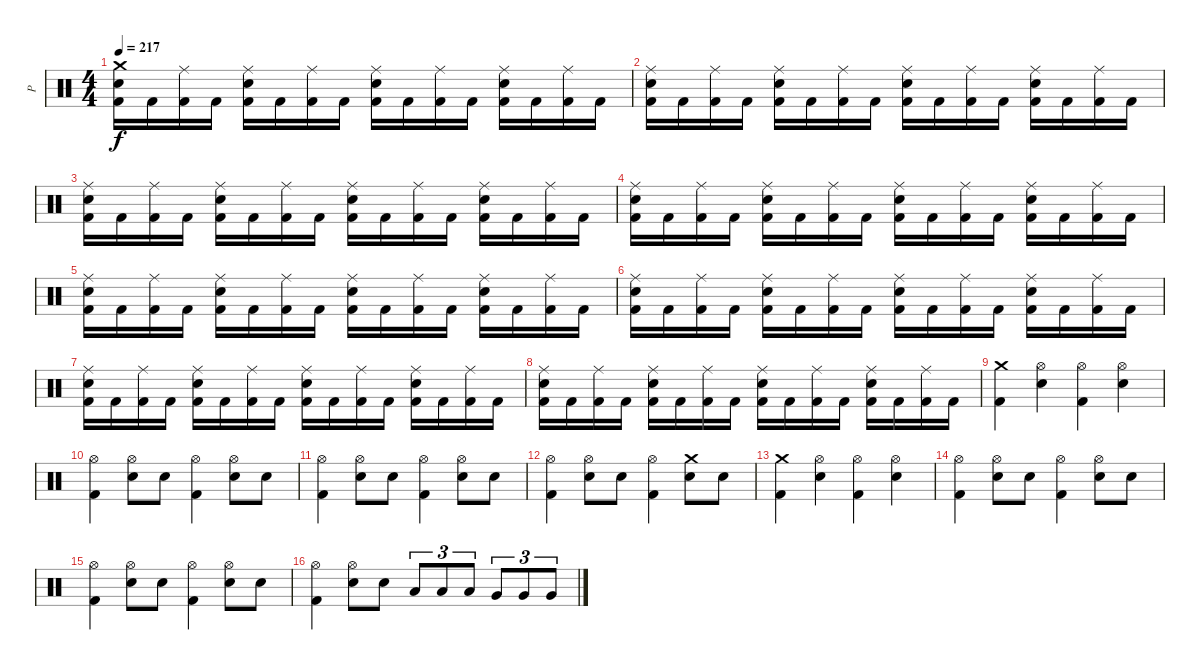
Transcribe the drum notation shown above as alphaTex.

\track ("P" "P") {instrument percussion}
\staff {score}
\articulation defaults
\ts (4 4)
\tempo 217
\clef neutral
\ks c
("Crash medium (hit)" "Electric Snare (hit)" "Kick (hit) 2").16{dy f} "Kick (hit) 2".16 ("Ride (middle)" "Kick (hit) 2").16 "Kick (hit) 2".16 ("Ride (middle)" "Electric Snare (hit)" "Kick (hit) 2").16 "Kick (hit) 2".16 ("Ride (middle)" "Kick (hit) 2").16 "Kick (hit) 2".16 ("Ride (middle)" "Electric Snare (hit)" "Kick (hit) 2").16 "Kick (hit) 2".16 ("Ride (middle)" "Kick (hit) 2").16 "Kick (hit) 2".16 ("Ride (middle)" "Electric Snare (hit)" "Kick (hit) 2").16 "Kick (hit) 2".16 ("Ride (middle)" "Kick (hit) 2").16 "Kick (hit) 2".16 |
("Ride (middle)" "Electric Snare (hit)" "Kick (hit) 2").16 "Kick (hit) 2".16 ("Ride (middle)" "Kick (hit) 2").16 "Kick (hit) 2".16 ("Ride (middle)" "Electric Snare (hit)" "Kick (hit) 2").16 "Kick (hit) 2".16 ("Ride (middle)" "Kick (hit) 2").16 "Kick (hit) 2".16 ("Ride (middle)" "Electric Snare (hit)" "Kick (hit) 2").16 "Kick (hit) 2".16 ("Ride (middle)" "Kick (hit) 2").16 "Kick (hit) 2".16 ("Ride (middle)" "Electric Snare (hit)" "Kick (hit) 2").16 "Kick (hit) 2".16 ("Ride (middle)" "Kick (hit) 2").16 "Kick (hit) 2".16 |
("Ride (middle)" "Electric Snare (hit)" "Kick (hit) 2").16 "Kick (hit) 2".16 ("Ride (middle)" "Kick (hit) 2").16 "Kick (hit) 2".16 ("Ride (middle)" "Electric Snare (hit)" "Kick (hit) 2").16 "Kick (hit) 2".16 ("Ride (middle)" "Kick (hit) 2").16 "Kick (hit) 2".16 ("Ride (middle)" "Electric Snare (hit)" "Kick (hit) 2").16 "Kick (hit) 2".16 ("Ride (middle)" "Kick (hit) 2").16 "Kick (hit) 2".16 ("Ride (middle)" "Electric Snare (hit)" "Kick (hit) 2").16 "Kick (hit) 2".16 ("Ride (middle)" "Kick (hit) 2").16 "Kick (hit) 2".16 |
("Ride (middle)" "Electric Snare (hit)" "Kick (hit) 2").16 "Kick (hit) 2".16 ("Ride (middle)" "Kick (hit) 2").16 "Kick (hit) 2".16 ("Ride (middle)" "Electric Snare (hit)" "Kick (hit) 2").16 "Kick (hit) 2".16 ("Ride (middle)" "Kick (hit) 2").16 "Kick (hit) 2".16 ("Ride (middle)" "Electric Snare (hit)" "Kick (hit) 2").16 "Kick (hit) 2".16 ("Ride (middle)" "Kick (hit) 2").16 "Kick (hit) 2".16 ("Ride (middle)" "Electric Snare (hit)" "Kick (hit) 2").16 "Kick (hit) 2".16 ("Ride (middle)" "Kick (hit) 2").16 "Kick (hit) 2".16 |
("Ride (middle)" "Electric Snare (hit)" "Kick (hit) 2").16 "Kick (hit) 2".16 ("Ride (middle)" "Kick (hit) 2").16 "Kick (hit) 2".16 ("Ride (middle)" "Electric Snare (hit)" "Kick (hit) 2").16 "Kick (hit) 2".16 ("Ride (middle)" "Kick (hit) 2").16 "Kick (hit) 2".16 ("Ride (middle)" "Electric Snare (hit)" "Kick (hit) 2").16 "Kick (hit) 2".16 ("Ride (middle)" "Kick (hit) 2").16 "Kick (hit) 2".16 ("Ride (middle)" "Electric Snare (hit)" "Kick (hit) 2").16 "Kick (hit) 2".16 ("Ride (middle)" "Kick (hit) 2").16 "Kick (hit) 2".16 |
("Ride (middle)" "Electric Snare (hit)" "Kick (hit) 2").16 "Kick (hit) 2".16 ("Ride (middle)" "Kick (hit) 2").16 "Kick (hit) 2".16 ("Ride (middle)" "Electric Snare (hit)" "Kick (hit) 2").16 "Kick (hit) 2".16 ("Ride (middle)" "Kick (hit) 2").16 "Kick (hit) 2".16 ("Ride (middle)" "Electric Snare (hit)" "Kick (hit) 2").16 "Kick (hit) 2".16 ("Ride (middle)" "Kick (hit) 2").16 "Kick (hit) 2".16 ("Ride (middle)" "Electric Snare (hit)" "Kick (hit) 2").16 "Kick (hit) 2".16 ("Ride (middle)" "Kick (hit) 2").16 "Kick (hit) 2".16 |
("Ride (middle)" "Electric Snare (hit)" "Kick (hit) 2").16 "Kick (hit) 2".16 ("Ride (middle)" "Kick (hit) 2").16 "Kick (hit) 2".16 ("Ride (middle)" "Electric Snare (hit)" "Kick (hit) 2").16 "Kick (hit) 2".16 ("Ride (middle)" "Kick (hit) 2").16 "Kick (hit) 2".16 ("Ride (middle)" "Electric Snare (hit)" "Kick (hit) 2").16 "Kick (hit) 2".16 ("Ride (middle)" "Kick (hit) 2").16 "Kick (hit) 2".16 ("Ride (middle)" "Electric Snare (hit)" "Kick (hit) 2").16 "Kick (hit) 2".16 ("Ride (middle)" "Kick (hit) 2").16 "Kick (hit) 2".16 |
("Ride (middle)" "Electric Snare (hit)" "Kick (hit) 2").16 "Kick (hit) 2".16 ("Ride (middle)" "Kick (hit) 2").16 "Kick (hit) 2".16 ("Ride (middle)" "Electric Snare (hit)" "Kick (hit) 2").16 "Kick (hit) 2".16 ("Ride (middle)" "Kick (hit) 2").16 "Kick (hit) 2".16 ("Ride (middle)" "Electric Snare (hit)" "Kick (hit) 2").16 "Kick (hit) 2".16 ("Ride (middle)" "Kick (hit) 2").16 "Kick (hit) 2".16 ("Ride (middle)" "Electric Snare (hit)" "Kick (hit) 2").16 "Kick (hit) 2".16 ("Ride (middle)" "Kick (hit) 2").16 "Kick (hit) 2".16 |
("Crash medium (hit)" "Kick (hit) 2").4 ("Hi-Hat (open)" "Electric Snare (hit)").4 ("Hi-Hat (open)" "Kick (hit) 2").4 ("Hi-Hat (open)" "Electric Snare (hit)").4 |
("Hi-Hat (open)" "Kick (hit) 2").4 ("Hi-Hat (open)" "Electric Snare (hit)").8 "Electric Snare (hit)".8 ("Hi-Hat (open)" "Kick (hit) 2").4 ("Hi-Hat (open)" "Electric Snare (hit)").8 "Electric Snare (hit)".8 |
("Hi-Hat (open)" "Kick (hit) 2").4 ("Hi-Hat (open)" "Electric Snare (hit)").8 "Electric Snare (hit)".8 ("Hi-Hat (open)" "Kick (hit) 2").4 ("Hi-Hat (open)" "Electric Snare (hit)").8 "Electric Snare (hit)".8 |
("Hi-Hat (open)" "Kick (hit) 2").4 ("Hi-Hat (open)" "Electric Snare (hit)").8 "Electric Snare (hit)".8 ("Hi-Hat (open)" "Kick (hit) 2").4 ("Crash medium (hit)" "Electric Snare (hit)").8 "Electric Snare (hit)".8 |
("Crash medium (hit)" "Kick (hit) 2").4 ("Hi-Hat (open)" "Electric Snare (hit)").4 ("Hi-Hat (open)" "Kick (hit) 2").4 ("Hi-Hat (open)" "Electric Snare (hit)").4 |
("Hi-Hat (open)" "Kick (hit) 2").4 ("Hi-Hat (open)" "Electric Snare (hit)").8 "Electric Snare (hit)".8 ("Hi-Hat (open)" "Kick (hit) 2").4 ("Hi-Hat (open)" "Electric Snare (hit)").8 "Electric Snare (hit)".8 |
("Hi-Hat (open)" "Kick (hit) 2").4 ("Hi-Hat (open)" "Electric Snare (hit)").8 "Electric Snare (hit)".8 ("Hi-Hat (open)" "Kick (hit) 2").4 ("Hi-Hat (open)" "Electric Snare (hit)").8 "Electric Snare (hit)".8 |
("Hi-Hat (open)" "Kick (hit) 2").4 ("Hi-Hat (open)" "Electric Snare (hit)").8 "Electric Snare (hit)".8 "Low Tom (hit)".8{tu (3 2)} "Low Tom (hit)".8{tu (3 2)} "Low Tom (hit)".8{tu (3 2)} "Very Low Tom (hit)".8{tu (3 2)} "Very Low Tom (hit)".8{tu (3 2)} "Very Low Tom (hit)".8{tu (3 2)}
